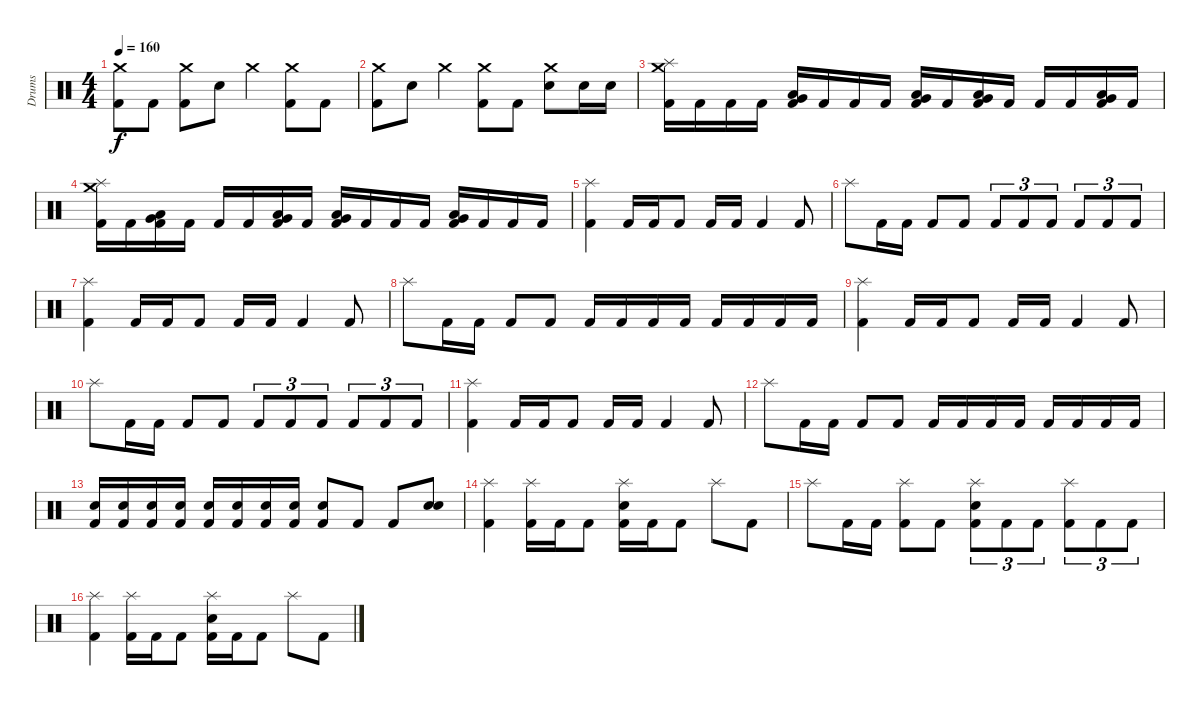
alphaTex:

\track ("Drums" "Drums") {instrument percussion}
\staff {score}
\articulation defaults
\ts (4 4)
\tempo 160
\clef neutral
\ks c
("Crash medium (hit)" "Kick (hit) 2").8{dy f} "Kick (hit) 2".8 ("Crash medium (hit)" "Kick (hit) 2").8 "Electric Snare (hit)".8 "Crash medium (hit)".4 ("Crash medium (hit)" "Kick (hit) 2").8 "Kick (hit) 2".8 |
("Crash medium (hit)" "Kick (hit) 2").8 "Electric Snare (hit)".8 "Crash medium (hit)".4 ("Crash medium (hit)" "Kick (hit) 2").8 "Kick (hit) 2".8 ("Crash medium (hit)" "Electric Snare (hit)").8 "Electric Snare (hit)".16 "Electric Snare (hit)".16 |
("Crash medium (hit)" "Splash (hit)" "Kick (hit) 2").16 "Kick (hit) 2".16 "Kick (hit) 2".16 "Kick (hit) 2".16 ("Very Low Tom (hit)" "Low Floor Tom (hit)" "Kick (hit) 2").16 "Kick (hit) 2".16 "Kick (hit) 2".16 "Kick (hit) 2".16 ("Very Low Tom (hit)" "Low Floor Tom (hit)" "Kick (hit) 2").16 "Kick (hit) 2".16 ("Very Low Tom (hit)" "Low Floor Tom (hit)" "Kick (hit) 2").16 "Kick (hit) 2".16 "Kick (hit) 2".16 "Kick (hit) 2".16 ("Very Low Tom (hit)" "Low Floor Tom (hit)" "Kick (hit) 2").16 "Kick (hit) 2".16 |
("Crash medium (hit)" "Splash (hit)" "Kick (hit) 2").16 "Kick (hit) 2".16 ("Very Low Tom (hit)" "Low Floor Tom (hit)" "Kick (hit) 2").16 "Kick (hit) 2".16 "Kick (hit) 2".16 "Kick (hit) 2".16 ("Very Low Tom (hit)" "Low Floor Tom (hit)" "Kick (hit) 2").16 "Kick (hit) 2".16 ("Very Low Tom (hit)" "Low Floor Tom (hit)" "Kick (hit) 2").16 "Kick (hit) 2".16 "Kick (hit) 2".16 "Kick (hit) 2".16 ("Very Low Tom (hit)" "Low Floor Tom (hit)" "Kick (hit) 2").16 "Kick (hit) 2".16 "Kick (hit) 2".16 "Kick (hit) 2".16 |
("Splash (hit)" "Kick (hit) 2").4 "Kick (hit) 2".16 "Kick (hit) 2".16 "Kick (hit) 2".8 "Kick (hit) 2".16 "Kick (hit) 2".16 "Kick (hit) 2".4 "Kick (hit) 2".8 |
"Splash (hit)".8 "Kick (hit) 2".16 "Kick (hit) 2".16 "Kick (hit) 2".8 "Kick (hit) 2".8 "Kick (hit) 2".8{tu (3 2)} "Kick (hit) 2".8{tu (3 2)} "Kick (hit) 2".8{tu (3 2)} "Kick (hit) 2".8{tu (3 2)} "Kick (hit) 2".8{tu (3 2)} "Kick (hit) 2".8{tu (3 2)} |
("Splash (hit)" "Kick (hit) 2").4 "Kick (hit) 2".16 "Kick (hit) 2".16 "Kick (hit) 2".8 "Kick (hit) 2".16 "Kick (hit) 2".16 "Kick (hit) 2".4 "Kick (hit) 2".8 |
"Splash (hit)".8 "Kick (hit) 2".16 "Kick (hit) 2".16 "Kick (hit) 2".8 "Kick (hit) 2".8 "Kick (hit) 2".16 "Kick (hit) 2".16 "Kick (hit) 2".16 "Kick (hit) 2".16 "Kick (hit) 2".16 "Kick (hit) 2".16 "Kick (hit) 2".16 "Kick (hit) 2".16 |
("Splash (hit)" "Kick (hit) 2").4 "Kick (hit) 2".16 "Kick (hit) 2".16 "Kick (hit) 2".8 "Kick (hit) 2".16 "Kick (hit) 2".16 "Kick (hit) 2".4 "Kick (hit) 2".8 |
"Splash (hit)".8 "Kick (hit) 2".16 "Kick (hit) 2".16 "Kick (hit) 2".8 "Kick (hit) 2".8 "Kick (hit) 2".8{tu (3 2)} "Kick (hit) 2".8{tu (3 2)} "Kick (hit) 2".8{tu (3 2)} "Kick (hit) 2".8{tu (3 2)} "Kick (hit) 2".8{tu (3 2)} "Kick (hit) 2".8{tu (3 2)} |
("Splash (hit)" "Kick (hit) 2").4 "Kick (hit) 2".16 "Kick (hit) 2".16 "Kick (hit) 2".8 "Kick (hit) 2".16 "Kick (hit) 2".16 "Kick (hit) 2".4 "Kick (hit) 2".8 |
"Splash (hit)".8 "Kick (hit) 2".16 "Kick (hit) 2".16 "Kick (hit) 2".8 "Kick (hit) 2".8 "Kick (hit) 2".16 "Kick (hit) 2".16 "Kick (hit) 2".16 "Kick (hit) 2".16 "Kick (hit) 2".16 "Kick (hit) 2".16 "Kick (hit) 2".16 "Kick (hit) 2".16 |
("Electric Snare (hit)" "Kick (hit) 2").16 ("Electric Snare (hit)" "Kick (hit) 2").16 ("Electric Snare (hit)" "Kick (hit) 2").16 ("Electric Snare (hit)" "Kick (hit) 2").16 ("Electric Snare (hit)" "Kick (hit) 2").16 ("Electric Snare (hit)" "Kick (hit) 2").16 ("Electric Snare (hit)" "Kick (hit) 2").16 ("Electric Snare (hit)" "Kick (hit) 2").16 ("Electric Snare (hit)" "Kick (hit) 2").8 "Kick (hit) 2".8 "Kick (hit) 2".8 ("Electric Snare (hit)" "Electric Snare (hit)").8 |
("Splash (hit)" "Kick (hit) 2").4 ("Splash (hit)" "Kick (hit) 2").16 "Kick (hit) 2".16 "Kick (hit) 2".8 ("Splash (hit)" "Electric Snare (hit)" "Kick (hit) 2").16 "Kick (hit) 2".16 "Kick (hit) 2".8 "Splash (hit)".8 "Kick (hit) 2".8 |
"Splash (hit)".8 "Kick (hit) 2".16 "Kick (hit) 2".16 ("Splash (hit)" "Kick (hit) 2").8 "Kick (hit) 2".8 ("Splash (hit)" "Electric Snare (hit)" "Kick (hit) 2").8{tu (3 2)} "Kick (hit) 2".8{tu (3 2)} "Kick (hit) 2".8{tu (3 2)} ("Splash (hit)" "Kick (hit) 2").8{tu (3 2)} "Kick (hit) 2".8{tu (3 2)} "Kick (hit) 2".8{tu (3 2)} |
("Splash (hit)" "Kick (hit) 2").4 ("Splash (hit)" "Kick (hit) 2").16 "Kick (hit) 2".16 "Kick (hit) 2".8 ("Splash (hit)" "Electric Snare (hit)" "Kick (hit) 2").16 "Kick (hit) 2".16 "Kick (hit) 2".8 "Splash (hit)".8 "Kick (hit) 2".8
